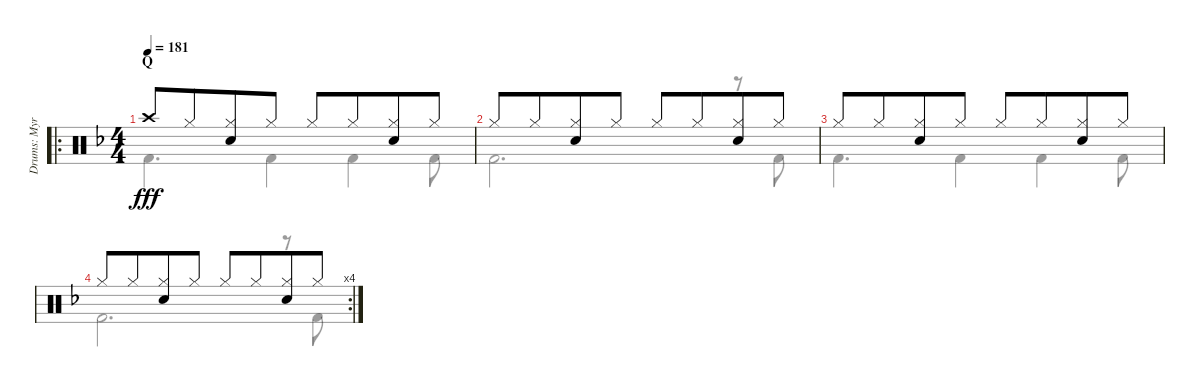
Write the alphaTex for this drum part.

\track ("Drums: Myron" "Drums: Myr") {instrument percussion}
\staff {score}
\articulation defaults
\voice
\ro
\ts (4 4)
\section ("" "Q")
\tempo 181
\clef neutral
\ks f "Crash high (hit)".8{dy fff} "Hi-Hat (closed)".8{beam merge}
("Hi-Hat (closed)" "Electric Snare (hit)").8 "Hi-Hat (closed)".8 "Hi-Hat (closed)".8 "Hi-Hat (closed)".8{beam merge} ("Hi-Hat (closed)" "Electric Snare (hit)").8 "Hi-Hat (closed)".8 |
"Hi-Hat (closed)".8 "Hi-Hat (closed)".8{beam merge} ("Hi-Hat (closed)" "Electric Snare (hit)").8 "Hi-Hat (closed)".8 "Hi-Hat (closed)".8 "Hi-Hat (closed)".8{beam merge} ("Hi-Hat (closed)" "Electric Snare (hit)").8 "Hi-Hat (closed)".8 |
"Hi-Hat (closed)".8 "Hi-Hat (closed)".8{beam merge} ("Hi-Hat (closed)" "Electric Snare (hit)").8 "Hi-Hat (closed)".8 "Hi-Hat (closed)".8 "Hi-Hat (closed)".8{beam merge} ("Hi-Hat (closed)" "Electric Snare (hit)").8 "Hi-Hat (closed)".8 |
\rc 4 "Hi-Hat (closed)".8 "Hi-Hat (closed)".8{beam merge}
("Hi-Hat (closed)" "Electric Snare (hit)").8 "Hi-Hat (closed)".8 "Hi-Hat (closed)".8 "Hi-Hat (closed)".8{beam merge} ("Hi-Hat (closed)" "Electric Snare (hit)").8 "Hi-Hat (closed)".8
\voice
\clef neutral
\ottava regular
\simile none
\ks f "Kick (hit) 2".4{d dy fff} "Kick (hit) 2".4 "Kick (hit) 2".4 "Kick (hit) 2".8
|
"Kick (hit) 2".2{d} r.8 "Kick (hit) 2".8 |
"Kick (hit) 2".4{d} "Kick (hit) 2".4 "Kick (hit) 2".4 "Kick (hit) 2".8 |
"Kick (hit) 2".2{d} r.8 "Kick (hit) 2".8
